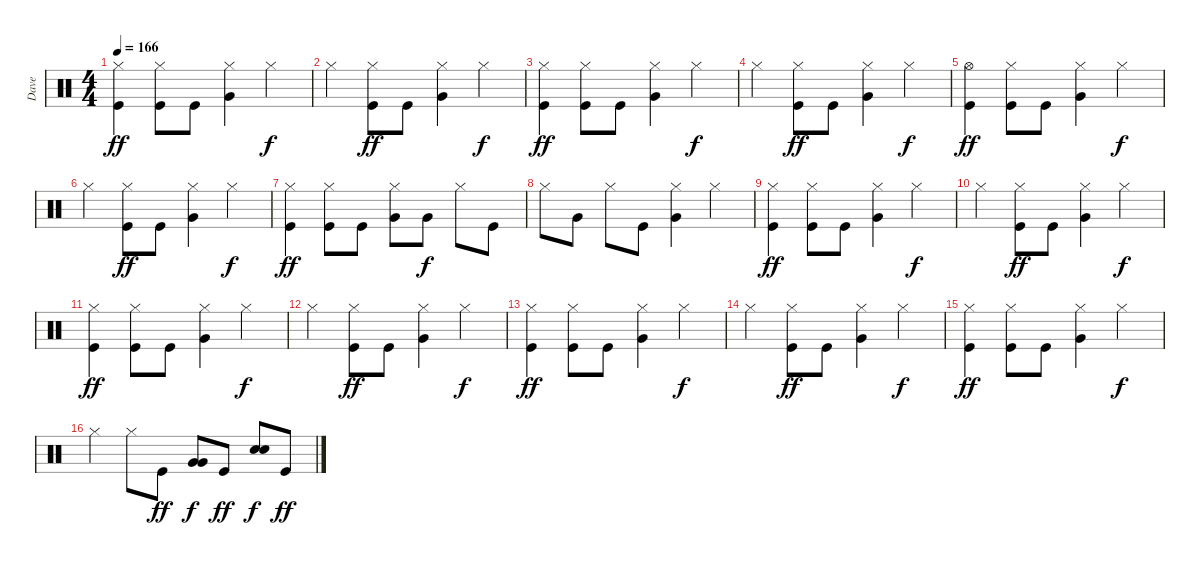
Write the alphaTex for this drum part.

\track ("Dave" "Dave") {instrument percussion}
\staff {score}
\articulation defaults
\ts (4 4)
\tempo 166
\clef neutral
\ks c
("Hi-Hat (closed)" "Kick (hit)").4{dy ff} ("Hi-Hat (closed)" "Kick (hit)").8 "Kick (hit)".8 ("Hi-Hat (closed)" "Very Low Tom (hit)").4 "Hi-Hat (closed)".4{dy f} |
"Hi-Hat (closed)".4 ("Hi-Hat (closed)" "Kick (hit)").8{dy ff} "Kick (hit)".8 ("Hi-Hat (closed)" "Very Low Tom (hit)").4 "Hi-Hat (closed)".4{dy f} |
("Hi-Hat (closed)" "Kick (hit)").4{dy ff} ("Hi-Hat (closed)" "Kick (hit)").8 "Kick (hit)".8 ("Hi-Hat (closed)" "Very Low Tom (hit)").4 "Hi-Hat (closed)".4{dy f} |
"Hi-Hat (closed)".4 ("Hi-Hat (closed)" "Kick (hit)").8{dy ff} "Kick (hit)".8 ("Hi-Hat (closed)" "Very Low Tom (hit)").4 "Hi-Hat (closed)".4{dy f} |
("Hi-Hat (open)" "Kick (hit)").4{dy ff} ("Hi-Hat (closed)" "Kick (hit)").8 "Kick (hit)".8 ("Hi-Hat (closed)" "Very Low Tom (hit)").4 "Hi-Hat (closed)".4{dy f} |
"Hi-Hat (closed)".4 ("Hi-Hat (closed)" "Kick (hit)").8{dy ff} "Kick (hit)".8 ("Hi-Hat (closed)" "Very Low Tom (hit)").4 "Hi-Hat (closed)".4{dy f} |
("Hi-Hat (closed)" "Kick (hit)").4{dy ff} ("Hi-Hat (closed)" "Kick (hit)").8 "Kick (hit)".8 ("Hi-Hat (closed)" "Very Low Tom (hit)").8 "Very Low Tom (hit)".8{dy f} "Hi-Hat (closed)".8 "Kick (hit)".8 |
"Hi-Hat (closed)".8 "Very Low Tom (hit)".8 "Hi-Hat (closed)".8 "Kick (hit)".8 ("Hi-Hat (closed)" "Very Low Tom (hit)").4 "Hi-Hat (closed)".4 |
("Hi-Hat (closed)" "Kick (hit)").4{dy ff} ("Hi-Hat (closed)" "Kick (hit)").8 "Kick (hit)".8 ("Hi-Hat (closed)" "Very Low Tom (hit)").4 "Hi-Hat (closed)".4{dy f} |
"Hi-Hat (closed)".4 ("Hi-Hat (closed)" "Kick (hit)").8{dy ff} "Kick (hit)".8 ("Hi-Hat (closed)" "Very Low Tom (hit)").4 "Hi-Hat (closed)".4{dy f} |
("Hi-Hat (closed)" "Kick (hit)").4{dy ff} ("Hi-Hat (closed)" "Kick (hit)").8 "Kick (hit)".8 ("Hi-Hat (closed)" "Very Low Tom (hit)").4 "Hi-Hat (closed)".4{dy f} |
"Hi-Hat (closed)".4 ("Hi-Hat (closed)" "Kick (hit)").8{dy ff} "Kick (hit)".8 ("Hi-Hat (closed)" "Very Low Tom (hit)").4 "Hi-Hat (closed)".4{dy f} |
("Hi-Hat (closed)" "Kick (hit)").4{dy ff} ("Hi-Hat (closed)" "Kick (hit)").8 "Kick (hit)".8 ("Hi-Hat (closed)" "Very Low Tom (hit)").4 "Hi-Hat (closed)".4{dy f} |
"Hi-Hat (closed)".4 ("Hi-Hat (closed)" "Kick (hit)").8{dy ff} "Kick (hit)".8 ("Hi-Hat (closed)" "Very Low Tom (hit)").4 "Hi-Hat (closed)".4{dy f} |
("Hi-Hat (closed)" "Kick (hit)").4{dy ff} ("Hi-Hat (closed)" "Kick (hit)").8 "Kick (hit)".8 ("Hi-Hat (closed)" "Very Low Tom (hit)").4 "Hi-Hat (closed)".4{dy f} |
"Hi-Hat (closed)".4 "Hi-Hat (closed)".8 "Kick (hit)".8{dy ff} ("Very Low Tom (hit)" "Very Low Tom (hit)").8{dy f} "Kick (hit)".8{dy ff} ("Snare (hit) 2" "Snare (hit) 2").8{dy f} "Kick (hit)".8{dy ff}
